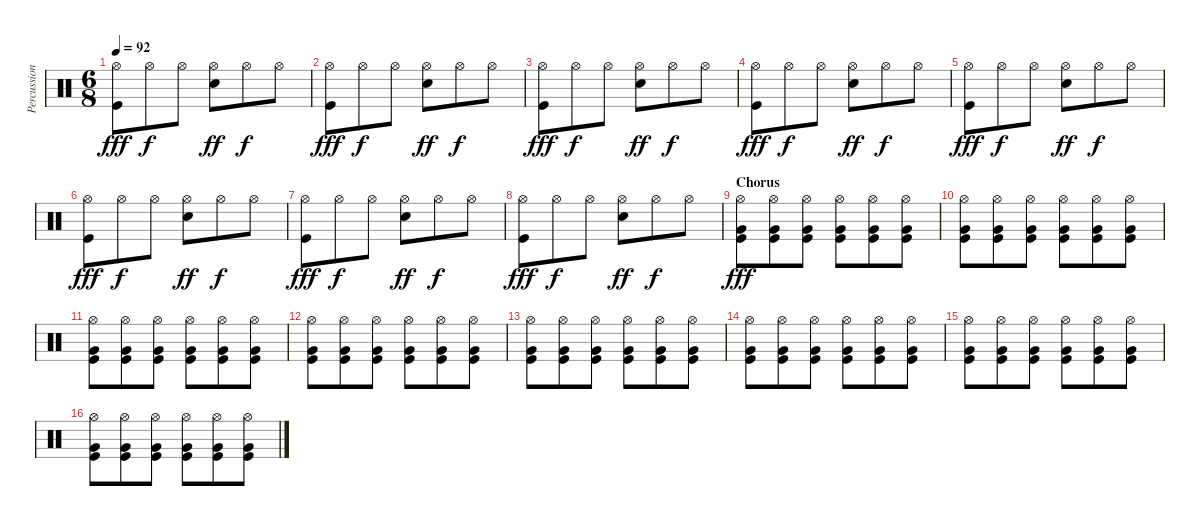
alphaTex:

\track ("Percussion" "Percussion") {instrument percussion}
\staff {score}
\articulation defaults
\ts (6 8)
\tempo 92
\clef neutral
\ks c
("Hi-Hat (open)" "Kick (hit)").8{dy fff} "Hi-Hat (open)".8{dy f} "Hi-Hat (open)".8 ("Hi-Hat (open)" "Snare (hit) 2").8{dy ff} "Hi-Hat (open)".8{dy f} "Hi-Hat (open)".8 |
("Hi-Hat (open)" "Kick (hit)").8{dy fff} "Hi-Hat (open)".8{dy f} "Hi-Hat (open)".8 ("Hi-Hat (open)" "Snare (hit) 2").8{dy ff} "Hi-Hat (open)".8{dy f} "Hi-Hat (open)".8 |
("Hi-Hat (open)" "Kick (hit)").8{dy fff} "Hi-Hat (open)".8{dy f} "Hi-Hat (open)".8 ("Hi-Hat (open)" "Snare (hit) 2").8{dy ff} "Hi-Hat (open)".8{dy f} "Hi-Hat (open)".8 |
("Hi-Hat (open)" "Kick (hit)").8{dy fff} "Hi-Hat (open)".8{dy f} "Hi-Hat (open)".8 ("Hi-Hat (open)" "Snare (hit) 2").8{dy ff} "Hi-Hat (open)".8{dy f} "Hi-Hat (open)".8 |
("Hi-Hat (open)" "Kick (hit)").8{dy fff} "Hi-Hat (open)".8{dy f} "Hi-Hat (open)".8 ("Hi-Hat (open)" "Snare (hit) 2").8{dy ff} "Hi-Hat (open)".8{dy f} "Hi-Hat (open)".8 |
("Hi-Hat (open)" "Kick (hit)").8{dy fff} "Hi-Hat (open)".8{dy f} "Hi-Hat (open)".8 ("Hi-Hat (open)" "Snare (hit) 2").8{dy ff} "Hi-Hat (open)".8{dy f} "Hi-Hat (open)".8 |
("Hi-Hat (open)" "Kick (hit)").8{dy fff} "Hi-Hat (open)".8{dy f} "Hi-Hat (open)".8 ("Hi-Hat (open)" "Snare (hit) 2").8{dy ff} "Hi-Hat (open)".8{dy f} "Hi-Hat (open)".8 |
("Hi-Hat (open)" "Kick (hit)").8{dy fff} "Hi-Hat (open)".8{dy f} "Hi-Hat (open)".8 ("Hi-Hat (open)" "Snare (hit) 2").8{dy ff} "Hi-Hat (open)".8{dy f} "Hi-Hat (open)".8 |
\section ("" "Chorus")
("Hi-Hat (open)" "Very Low Tom (hit)" "Kick (hit)").8{dy fff} ("Hi-Hat (open)" "Very Low Tom (hit)" "Kick (hit)").8 ("Hi-Hat (open)" "Very Low Tom (hit)" "Kick (hit)").8 ("Hi-Hat (open)" "Very Low Tom (hit)" "Kick (hit)").8 ("Hi-Hat (open)" "Very Low Tom (hit)" "Kick (hit)").8 ("Hi-Hat (open)" "Very Low Tom (hit)" "Kick (hit)").8 |
("Hi-Hat (open)" "Very Low Tom (hit)" "Kick (hit)").8 ("Hi-Hat (open)" "Very Low Tom (hit)" "Kick (hit)").8 ("Hi-Hat (open)" "Very Low Tom (hit)" "Kick (hit)").8 ("Hi-Hat (open)" "Very Low Tom (hit)" "Kick (hit)").8 ("Hi-Hat (open)" "Very Low Tom (hit)" "Kick (hit)").8 ("Hi-Hat (open)" "Very Low Tom (hit)" "Kick (hit)").8 |
("Hi-Hat (open)" "Very Low Tom (hit)" "Kick (hit)").8 ("Hi-Hat (open)" "Very Low Tom (hit)" "Kick (hit)").8 ("Hi-Hat (open)" "Very Low Tom (hit)" "Kick (hit)").8 ("Hi-Hat (open)" "Very Low Tom (hit)" "Kick (hit)").8 ("Hi-Hat (open)" "Very Low Tom (hit)" "Kick (hit)").8 ("Hi-Hat (open)" "Very Low Tom (hit)" "Kick (hit)").8 |
("Hi-Hat (open)" "Very Low Tom (hit)" "Kick (hit)").8 ("Hi-Hat (open)" "Very Low Tom (hit)" "Kick (hit)").8 ("Hi-Hat (open)" "Very Low Tom (hit)" "Kick (hit)").8 ("Hi-Hat (open)" "Very Low Tom (hit)" "Kick (hit)").8 ("Hi-Hat (open)" "Very Low Tom (hit)" "Kick (hit)").8 ("Hi-Hat (open)" "Very Low Tom (hit)" "Kick (hit)").8 |
("Hi-Hat (open)" "Very Low Tom (hit)" "Kick (hit)").8 ("Hi-Hat (open)" "Very Low Tom (hit)" "Kick (hit)").8 ("Hi-Hat (open)" "Very Low Tom (hit)" "Kick (hit)").8 ("Hi-Hat (open)" "Very Low Tom (hit)" "Kick (hit)").8 ("Hi-Hat (open)" "Very Low Tom (hit)" "Kick (hit)").8 ("Hi-Hat (open)" "Very Low Tom (hit)" "Kick (hit)").8 |
("Hi-Hat (open)" "Very Low Tom (hit)" "Kick (hit)").8 ("Hi-Hat (open)" "Very Low Tom (hit)" "Kick (hit)").8 ("Hi-Hat (open)" "Very Low Tom (hit)" "Kick (hit)").8 ("Hi-Hat (open)" "Very Low Tom (hit)" "Kick (hit)").8 ("Hi-Hat (open)" "Very Low Tom (hit)" "Kick (hit)").8 ("Hi-Hat (open)" "Very Low Tom (hit)" "Kick (hit)").8 |
("Hi-Hat (open)" "Very Low Tom (hit)" "Kick (hit)").8 ("Hi-Hat (open)" "Very Low Tom (hit)" "Kick (hit)").8 ("Hi-Hat (open)" "Very Low Tom (hit)" "Kick (hit)").8 ("Hi-Hat (open)" "Very Low Tom (hit)" "Kick (hit)").8 ("Hi-Hat (open)" "Very Low Tom (hit)" "Kick (hit)").8 ("Hi-Hat (open)" "Very Low Tom (hit)" "Kick (hit)").8 |
("Hi-Hat (open)" "Very Low Tom (hit)" "Kick (hit)").8 ("Hi-Hat (open)" "Very Low Tom (hit)" "Kick (hit)").8 ("Hi-Hat (open)" "Very Low Tom (hit)" "Kick (hit)").8 ("Hi-Hat (open)" "Very Low Tom (hit)" "Kick (hit)").8 ("Hi-Hat (open)" "Very Low Tom (hit)" "Kick (hit)").8 ("Hi-Hat (open)" "Very Low Tom (hit)" "Kick (hit)").8
